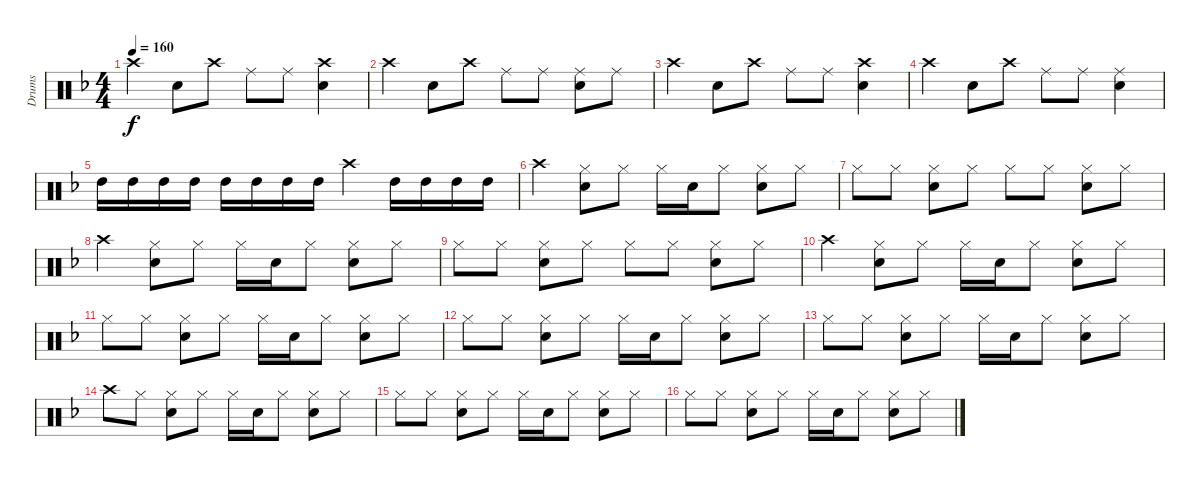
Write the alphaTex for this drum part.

\track ("Drums" "Drums") {instrument percussion}
\staff {score}
\articulation defaults
\ts (4 4)
\tempo 160
\clef neutral
\ks f "Crash high (hit)".4{dy f} "Snare (hit) 2".8 "Crash high (hit)".8 "Ride (middle)".8 "Ride (middle)".8
("Crash high (hit)" "Snare (hit) 2").4 |
"Crash high (hit)".4 "Snare (hit) 2".8 "Crash high (hit)".8 "Ride (middle)".8 "Ride (middle)".8 ("Ride (middle)" "Snare (hit) 2").8 "Ride (middle)".8 |
"Crash high (hit)".4 "Snare (hit) 2".8 "Crash high (hit)".8 "Ride (middle)".8 "Ride (middle)".8 ("Crash high (hit)" "Snare (hit) 2").4 |
"Crash high (hit)".4 "Snare (hit) 2".8 "Crash high (hit)".8 "Ride (middle)".8 "Ride (middle)".8 ("Ride (middle)" "Snare (hit) 2").4 |
"High Tom (hit)".16 "High Tom (hit)".16 "High Tom (hit)".16 "High Tom (hit)".16 "High Tom (hit)".16 "High Tom (hit)".16 "High Tom (hit)".16 "High Tom (hit)".16 "Crash high (hit)".4 "High Tom (hit)".16 "High Tom (hit)".16 "High Tom (hit)".16 "High Tom (hit)".16 |
"Crash high (hit)".4 ("Hi-Hat (closed)" "Snare (hit) 2").8 "Hi-Hat (closed)".8 "Hi-Hat (closed)".16 "Snare (hit) 2".16 "Hi-Hat (closed)".8 ("Hi-Hat (closed)" "Snare (hit) 2").8 "Hi-Hat (closed)".8 |
"Hi-Hat (closed)".8 "Hi-Hat (closed)".8 ("Hi-Hat (closed)" "Snare (hit) 2").8 "Hi-Hat (closed)".8 "Hi-Hat (closed)".8 "Hi-Hat (closed)".8 ("Hi-Hat (closed)" "Snare (hit) 2").8 "Hi-Hat (closed)".8 |
"Crash high (hit)".4 ("Hi-Hat (closed)" "Snare (hit) 2").8 "Hi-Hat (closed)".8 "Hi-Hat (closed)".16 "Snare (hit) 2".16 "Hi-Hat (closed)".8 ("Hi-Hat (closed)" "Snare (hit) 2").8 "Hi-Hat (closed)".8 |
"Hi-Hat (closed)".8 "Hi-Hat (closed)".8 ("Hi-Hat (closed)" "Snare (hit) 2").8 "Hi-Hat (closed)".8 "Hi-Hat (closed)".8 "Hi-Hat (closed)".8 ("Hi-Hat (closed)" "Snare (hit) 2").8 "Hi-Hat (closed)".8 |
"Crash high (hit)".4 ("Hi-Hat (closed)" "Snare (hit) 2").8 "Hi-Hat (closed)".8 "Hi-Hat (closed)".16 "Snare (hit) 2".16 "Hi-Hat (closed)".8 ("Hi-Hat (closed)" "Snare (hit) 2").8 "Hi-Hat (closed)".8 |
"Hi-Hat (closed)".8 "Hi-Hat (closed)".8 ("Hi-Hat (closed)" "Snare (hit) 2").8 "Hi-Hat (closed)".8 "Hi-Hat (closed)".16 "Snare (hit) 2".16 "Hi-Hat (closed)".8 ("Hi-Hat (closed)" "Snare (hit) 2").8 "Hi-Hat (closed)".8 |
"Hi-Hat (closed)".8 "Hi-Hat (closed)".8 ("Hi-Hat (closed)" "Snare (hit) 2").8 "Hi-Hat (closed)".8 "Hi-Hat (closed)".16 "Snare (hit) 2".16 "Hi-Hat (closed)".8 ("Hi-Hat (closed)" "Snare (hit) 2").8 "Hi-Hat (closed)".8 |
"Hi-Hat (closed)".8 "Hi-Hat (closed)".8 ("Hi-Hat (closed)" "Snare (hit) 2").8 "Hi-Hat (closed)".8 "Hi-Hat (closed)".16 "Snare (hit) 2".16 "Hi-Hat (closed)".8 ("Hi-Hat (closed)" "Snare (hit) 2").8 "Hi-Hat (closed)".8 |
"Crash high (hit)".8 "Hi-Hat (closed)".8 ("Hi-Hat (closed)" "Snare (hit) 2").8 "Hi-Hat (closed)".8 "Hi-Hat (closed)".16 "Snare (hit) 2".16 "Hi-Hat (closed)".8 ("Hi-Hat (closed)" "Snare (hit) 2").8 "Hi-Hat (closed)".8 |
"Hi-Hat (closed)".8 "Hi-Hat (closed)".8 ("Hi-Hat (closed)" "Snare (hit) 2").8 "Hi-Hat (closed)".8 "Hi-Hat (closed)".16 "Snare (hit) 2".16 "Hi-Hat (closed)".8 ("Hi-Hat (closed)" "Snare (hit) 2").8 "Hi-Hat (closed)".8 |
"Hi-Hat (closed)".8 "Hi-Hat (closed)".8 ("Hi-Hat (closed)" "Snare (hit) 2").8 "Hi-Hat (closed)".8 "Hi-Hat (closed)".16 "Snare (hit) 2".16 "Hi-Hat (closed)".8 ("Hi-Hat (closed)" "Snare (hit) 2").8 "Hi-Hat (closed)".8
